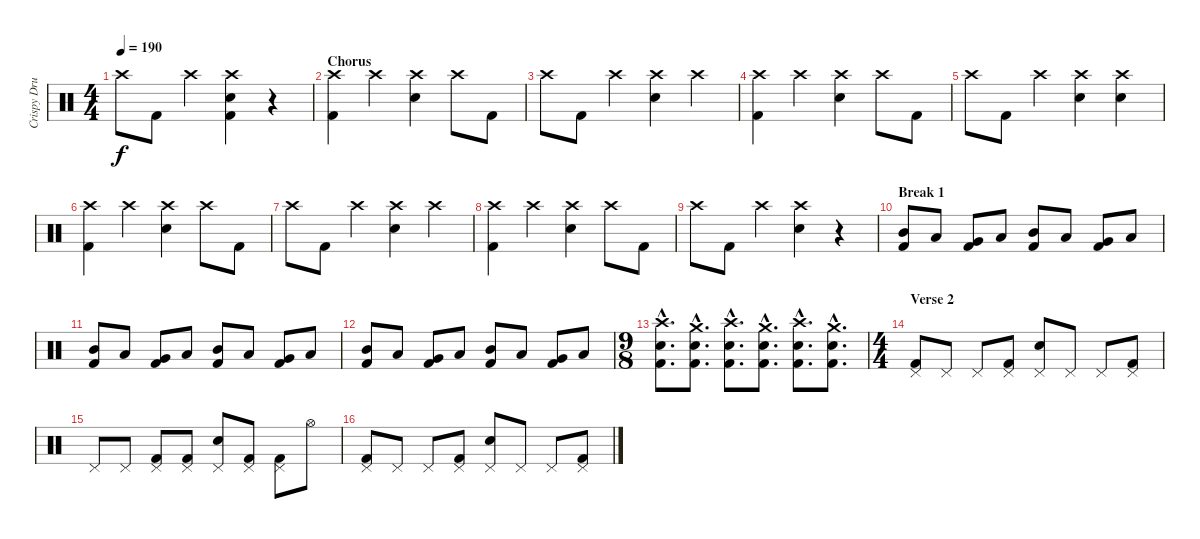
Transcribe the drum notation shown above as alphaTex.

\track ("Crispy Drums" "Crispy Dru") {instrument percussion}
\staff {score}
\articulation defaults
\ts (4 4)
\tempo 190
\clef neutral
\ks c "Crash high (hit)".8{dy f} "Kick (hit) 2".8 "Crash high (hit)".4
("Crash high (hit)" "Electric Snare (hit)" "Kick (hit) 2").4 r.4 |
\section ("" "Chorus")
("Crash high (hit)" "Kick (hit) 2").4 "Crash high (hit)".4 ("Crash high (hit)" "Electric Snare (hit)").4 "Crash high (hit)".8 "Kick (hit) 2".8 |
"Crash high (hit)".8 "Kick (hit) 2".8 "Crash high (hit)".4 ("Crash high (hit)" "Electric Snare (hit)").4 "Crash high (hit)".4 |
("Crash high (hit)" "Kick (hit) 2").4 "Crash high (hit)".4 ("Crash high (hit)" "Electric Snare (hit)").4 "Crash high (hit)".8 "Kick (hit) 2".8 |
"Crash high (hit)".8 "Kick (hit) 2".8 "Crash high (hit)".4 ("Crash high (hit)" "Electric Snare (hit)").4 ("Crash high (hit)" "Electric Snare (hit)").4 |
("Crash high (hit)" "Kick (hit) 2").4 "Crash high (hit)".4 ("Crash high (hit)" "Electric Snare (hit)").4 "Crash high (hit)".8 "Kick (hit) 2".8 |
"Crash high (hit)".8 "Kick (hit) 2".8 "Crash high (hit)".4 ("Crash high (hit)" "Electric Snare (hit)").4 "Crash high (hit)".4 |
("Crash high (hit)" "Kick (hit) 2").4 "Crash high (hit)".4 ("Crash high (hit)" "Electric Snare (hit)").4 "Crash high (hit)".8 "Kick (hit) 2".8 |
"Crash high (hit)".8 "Kick (hit) 2".8 "Crash high (hit)".4 ("Crash high (hit)" "Electric Snare (hit)").4 r.4 |
\section ("" "Break 1")
("Mid Tom (hit)" "Kick (hit) 2").8 "Low Tom (hit)".8 ("Very Low Tom (hit)" "Kick (hit) 2").8 "Low Floor Tom (hit)".8 ("Mid Tom (hit)" "Kick (hit) 2").8 "Low Tom (hit)".8 ("Very Low Tom (hit)" "Kick (hit) 2").8 "Low Floor Tom (hit)".8 |
("Mid Tom (hit)" "Kick (hit) 2").8 "Low Tom (hit)".8 ("Very Low Tom (hit)" "Kick (hit) 2").8 "Low Floor Tom (hit)".8 ("Mid Tom (hit)" "Kick (hit) 2").8 "Low Tom (hit)".8 ("Very Low Tom (hit)" "Kick (hit) 2").8 "Low Floor Tom (hit)".8 |
("Mid Tom (hit)" "Kick (hit) 2").8 "Low Tom (hit)".8 ("Very Low Tom (hit)" "Kick (hit) 2").8 "Low Floor Tom (hit)".8 ("Mid Tom (hit)" "Kick (hit) 2").8 "Low Tom (hit)".8 ("Very Low Tom (hit)" "Kick (hit) 2").8 "Low Floor Tom (hit)".8 |
\ts (9 8)
("Crash high (hit)"{hac} "Electric Snare (hit)"{hac} "Kick (hit) 2"{hac}).8{d} ("Crash medium (hit)"{hac} "Electric Snare (hit)"{hac} "Kick (hit) 2"{hac}).8{d} ("Crash high (hit)"{hac} "Electric Snare (hit)"{hac} "Kick (hit) 2"{hac}).8{d} ("Crash medium (hit)"{hac} "Electric Snare (hit)"{hac} "Kick (hit) 2"{hac}).8{d} ("Crash high (hit)"{hac} "Electric Snare (hit)"{hac} "Kick (hit) 2"{hac}).8{d} ("Crash medium (hit)"{hac} "Electric Snare (hit)"{hac} "Kick (hit) 2"{hac}).8{d} |
\ts (4 4)
\section ("" "Verse 2")
("Pedal Hi-Hat (hit)" "Kick (hit) 2").8 "Pedal Hi-Hat (hit)".8 "Pedal Hi-Hat (hit)".8 ("Pedal Hi-Hat (hit)" "Kick (hit) 2").8 ("Pedal Hi-Hat (hit)" "Electric Snare (hit)").8 "Pedal Hi-Hat (hit)".8 "Pedal Hi-Hat (hit)".8 ("Pedal Hi-Hat (hit)" "Kick (hit) 2").8 |
"Pedal Hi-Hat (hit)".8 "Pedal Hi-Hat (hit)".8 ("Pedal Hi-Hat (hit)" "Kick (hit) 2").8 ("Pedal Hi-Hat (hit)" "Kick (hit) 2").8 ("Pedal Hi-Hat (hit)" "Electric Snare (hit)").8 ("Pedal Hi-Hat (hit)" "Kick (hit) 2").8 ("Pedal Hi-Hat (hit)" "Kick (hit) 2").8 "Hi-Hat (open)".8 |
("Pedal Hi-Hat (hit)" "Kick (hit) 2").8 "Pedal Hi-Hat (hit)".8 "Pedal Hi-Hat (hit)".8 ("Pedal Hi-Hat (hit)" "Kick (hit) 2").8 ("Pedal Hi-Hat (hit)" "Electric Snare (hit)").8 "Pedal Hi-Hat (hit)".8 "Pedal Hi-Hat (hit)".8 ("Pedal Hi-Hat (hit)" "Kick (hit) 2").8
